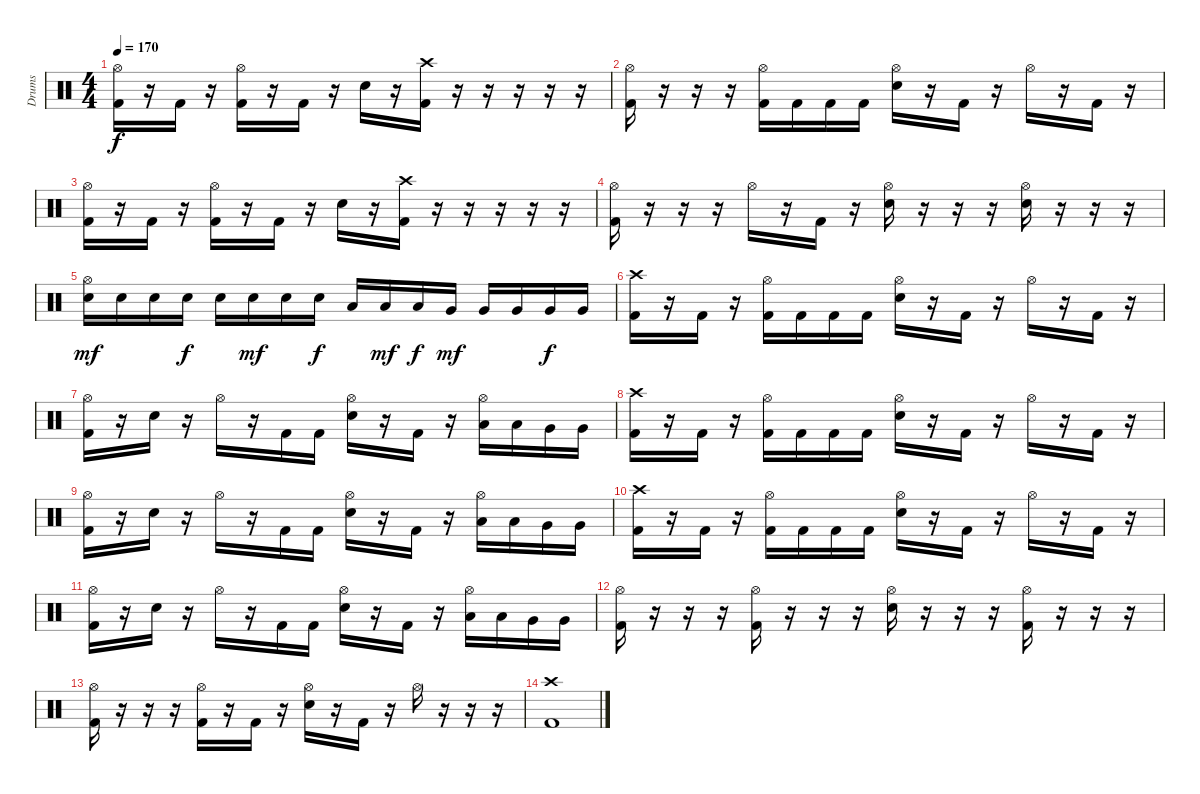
\track ("Drums" "Drums") {instrument percussion}
\staff {score}
\articulation defaults
\ts (4 4)
\tempo 170
\clef neutral
\ks c
("Hi-Hat (open)" "Kick (hit) 2").16{dy f} r.16 "Kick (hit) 2".16 r.16 ("Hi-Hat (open)" "Kick (hit) 2").16 r.16 "Kick (hit) 2".16 r.16 "Electric Snare (hit)".16 r.16 ("Crash high (hit)" "Kick (hit) 2").16 r.16 r.16 r.16 r.16 r.16 |
("Hi-Hat (open)" "Kick (hit) 2").16 r.16 r.16 r.16 ("Hi-Hat (open)" "Kick (hit) 2").16 "Kick (hit) 2".16 "Kick (hit) 2".16 "Kick (hit) 2".16 ("Hi-Hat (open)" "Electric Snare (hit)").16 r.16 "Kick (hit) 2".16 r.16 "Hi-Hat (open)".16 r.16 "Kick (hit) 2".16 r.16 |
("Hi-Hat (open)" "Kick (hit) 2").16 r.16 "Kick (hit) 2".16 r.16 ("Hi-Hat (open)" "Kick (hit) 2").16 r.16 "Kick (hit) 2".16 r.16 "Electric Snare (hit)".16 r.16 ("Crash high (hit)" "Kick (hit) 2").16 r.16 r.16 r.16 r.16 r.16 |
("Hi-Hat (open)" "Kick (hit) 2").16 r.16 r.16 r.16 "Hi-Hat (open)".16 r.16 "Kick (hit) 2".16 r.16 ("Hi-Hat (open)" "Electric Snare (hit)").16 r.16 r.16 r.16 ("Hi-Hat (open)" "Electric Snare (hit)").16 r.16 r.16 r.16 |
("Hi-Hat (open)" "Electric Snare (hit)").16{dy mf} "Electric Snare (hit)".16 "Electric Snare (hit)".16 "Electric Snare (hit)".16{dy f} "Electric Snare (hit)".16 "Electric Snare (hit)".16{dy mf} "Electric Snare (hit)".16 "Electric Snare (hit)".16{dy f} "Low Tom (hit)".16 "Low Tom (hit)".16{dy mf} "Low Tom (hit)".16{dy f} "Very Low Tom (hit)".16{dy mf} "Very Low Tom (hit)".16 "Very Low Tom (hit)".16 "Very Low Tom (hit)".16{dy f} "Very Low Tom (hit)".16 |
("Crash high (hit)" "Kick (hit) 2").16 r.16 "Kick (hit) 2".16 r.16 ("Hi-Hat (open)" "Kick (hit) 2").16 "Kick (hit) 2".16 "Kick (hit) 2".16 "Kick (hit) 2".16 ("Hi-Hat (open)" "Electric Snare (hit)").16 r.16 "Kick (hit) 2".16 r.16 "Hi-Hat (open)".16 r.16 "Kick (hit) 2".16 r.16 |
("Hi-Hat (open)" "Kick (hit) 2").16 r.16 "Electric Snare (hit)".16 r.16 "Hi-Hat (open)".16 r.16 "Kick (hit) 2".16 "Kick (hit) 2".16 ("Hi-Hat (open)" "Electric Snare (hit)").16 r.16 "Kick (hit) 2".16 r.16 ("Hi-Hat (open)" "Low Tom (hit)").16 "Low Tom (hit)".16 "Very Low Tom (hit)".16 "Very Low Tom (hit)".16 |
("Crash high (hit)" "Kick (hit) 2").16 r.16 "Kick (hit) 2".16 r.16 ("Hi-Hat (open)" "Kick (hit) 2").16 "Kick (hit) 2".16 "Kick (hit) 2".16 "Kick (hit) 2".16 ("Hi-Hat (open)" "Electric Snare (hit)").16 r.16 "Kick (hit) 2".16 r.16 "Hi-Hat (open)".16 r.16 "Kick (hit) 2".16 r.16 |
("Hi-Hat (open)" "Kick (hit) 2").16 r.16 "Electric Snare (hit)".16 r.16 "Hi-Hat (open)".16 r.16 "Kick (hit) 2".16 "Kick (hit) 2".16 ("Hi-Hat (open)" "Electric Snare (hit)").16 r.16 "Kick (hit) 2".16 r.16 ("Hi-Hat (open)" "Low Tom (hit)").16 "Low Tom (hit)".16 "Very Low Tom (hit)".16 "Very Low Tom (hit)".16 |
("Crash high (hit)" "Kick (hit) 2").16 r.16 "Kick (hit) 2".16 r.16 ("Hi-Hat (open)" "Kick (hit) 2").16 "Kick (hit) 2".16 "Kick (hit) 2".16 "Kick (hit) 2".16 ("Hi-Hat (open)" "Electric Snare (hit)").16 r.16 "Kick (hit) 2".16 r.16 "Hi-Hat (open)".16 r.16 "Kick (hit) 2".16 r.16 |
("Hi-Hat (open)" "Kick (hit) 2").16 r.16 "Electric Snare (hit)".16 r.16 "Hi-Hat (open)".16 r.16 "Kick (hit) 2".16 "Kick (hit) 2".16 ("Hi-Hat (open)" "Electric Snare (hit)").16 r.16 "Kick (hit) 2".16 r.16 ("Hi-Hat (open)" "Low Tom (hit)").16 "Low Tom (hit)".16 "Very Low Tom (hit)".16 "Very Low Tom (hit)".16 |
("Hi-Hat (open)" "Kick (hit) 2").16 r.16 r.16 r.16 ("Hi-Hat (open)" "Kick (hit) 2").16 r.16 r.16 r.16 ("Hi-Hat (open)" "Electric Snare (hit)").16 r.16 r.16 r.16 ("Hi-Hat (open)" "Kick (hit) 2").16 r.16 r.16 r.16 |
("Hi-Hat (open)" "Kick (hit) 2").16 r.16 r.16 r.16 ("Hi-Hat (open)" "Kick (hit) 2").16 r.16 "Kick (hit) 2".16 r.16 ("Hi-Hat (open)" "Electric Snare (hit)").16 r.16 "Kick (hit) 2".16 r.16 "Hi-Hat (open)".16 r.16 r.16 r.16 |
("Crash high (hit)" "Kick (hit) 2").1
